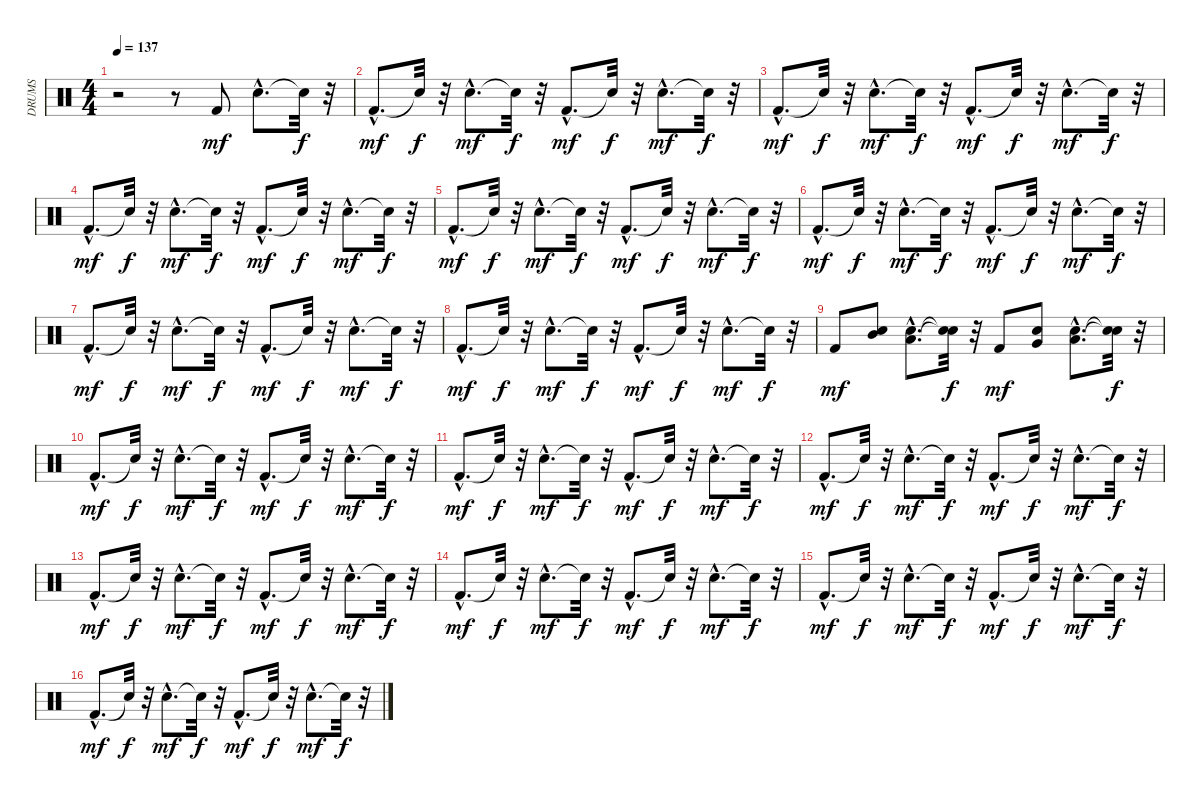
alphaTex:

\track ("DRUMS" "DRUMS") {instrument percussion}
\staff {score}
\articulation defaults
\ts (4 4)
\tempo 137
\clef neutral
\ks c
r.2{dy mf} r.8 "Kick (hit) 2".8 "Snare (hit) 2"{hac}.8{d} "Snare (hit)"{t}.32{dy f} r.32 |
"Kick (hit) 2"{hac}.8{d dy mf} "Snare (hit)"{t}.32{dy f} r.32 "Snare (hit) 2"{hac}.8{d dy mf} "Snare (hit)"{t}.32{dy f} r.32 "Kick (hit) 2"{hac}.8{d dy mf} "Snare (hit)"{t}.32{dy f} r.32 "Snare (hit) 2"{hac}.8{d dy mf} "Snare (hit)"{t}.32{dy f} r.32 |
"Kick (hit) 2"{hac}.8{d dy mf} "Snare (hit)"{t}.32{dy f} r.32 "Snare (hit) 2"{hac}.8{d dy mf} "Snare (hit)"{t}.32{dy f} r.32 "Kick (hit) 2"{hac}.8{d dy mf} "Snare (hit)"{t}.32{dy f} r.32 "Snare (hit) 2"{hac}.8{d dy mf} "Snare (hit)"{t}.32{dy f} r.32 |
"Kick (hit) 2"{hac}.8{d dy mf} "Snare (hit)"{t}.32{dy f} r.32 "Snare (hit) 2"{hac}.8{d dy mf} "Snare (hit)"{t}.32{dy f} r.32 "Kick (hit) 2"{hac}.8{d dy mf} "Snare (hit)"{t}.32{dy f} r.32 "Snare (hit) 2"{hac}.8{d dy mf} "Snare (hit)"{t}.32{dy f} r.32 |
"Kick (hit) 2"{hac}.8{d dy mf} "Snare (hit)"{t}.32{dy f} r.32 "Snare (hit) 2"{hac}.8{d dy mf} "Snare (hit)"{t}.32{dy f} r.32 "Kick (hit) 2"{hac}.8{d dy mf} "Snare (hit)"{t}.32{dy f} r.32 "Snare (hit) 2"{hac}.8{d dy mf} "Snare (hit)"{t}.32{dy f} r.32 |
"Kick (hit) 2"{hac}.8{d dy mf} "Snare (hit)"{t}.32{dy f} r.32 "Snare (hit) 2"{hac}.8{d dy mf} "Snare (hit)"{t}.32{dy f} r.32 "Kick (hit) 2"{hac}.8{d dy mf} "Snare (hit)"{t}.32{dy f} r.32 "Snare (hit) 2"{hac}.8{d dy mf} "Snare (hit)"{t}.32{dy f} r.32 |
"Kick (hit) 2"{hac}.8{d dy mf} "Snare (hit)"{t}.32{dy f} r.32 "Snare (hit) 2"{hac}.8{d dy mf} "Snare (hit)"{t}.32{dy f} r.32 "Kick (hit) 2"{hac}.8{d dy mf} "Snare (hit)"{t}.32{dy f} r.32 "Snare (hit) 2"{hac}.8{d dy mf} "Snare (hit)"{t}.32{dy f} r.32 |
"Kick (hit) 2"{hac}.8{d dy mf} "Snare (hit)"{t}.32{dy f} r.32 "Snare (hit) 2"{hac}.8{d dy mf} "Snare (hit)"{t}.32{dy f} r.32 "Kick (hit) 2"{hac}.8{d dy mf} "Snare (hit)"{t}.32{dy f} r.32 "Snare (hit) 2"{hac}.8{d dy mf} "Snare (hit)"{t}.32{dy f} r.32 |
"Kick (hit) 2".8{dy mf} ("Mid Tom (hit)" "Snare (hit) 2").8 ("Low Tom (hit)"{hac} "Snare (hit) 2"{hac}).8{d} ("Snare (hit)"{t} "Snare (hit)"{t}).32{dy f} r.32 "Kick (hit) 2".8{dy mf} ("Very Low Tom (hit)" "Snare (hit) 2").8 ("Low Floor Tom (hit)"{hac} "Snare (hit) 2"{hac}).8{d} ("Snare (hit)"{t} "Snare (hit)"{t}).32{dy f} r.32 |
"Kick (hit) 2"{hac}.8{d dy mf} "Snare (hit)"{t}.32{dy f} r.32 "Snare (hit) 2"{hac}.8{d dy mf} "Snare (hit)"{t}.32{dy f} r.32 "Kick (hit) 2"{hac}.8{d dy mf} "Snare (hit)"{t}.32{dy f} r.32 "Snare (hit) 2"{hac}.8{d dy mf} "Snare (hit)"{t}.32{dy f} r.32 |
"Kick (hit) 2"{hac}.8{d dy mf} "Snare (hit)"{t}.32{dy f} r.32 "Snare (hit) 2"{hac}.8{d dy mf} "Snare (hit)"{t}.32{dy f} r.32 "Kick (hit) 2"{hac}.8{d dy mf} "Snare (hit)"{t}.32{dy f} r.32 "Snare (hit) 2"{hac}.8{d dy mf} "Snare (hit)"{t}.32{dy f} r.32 |
"Kick (hit) 2"{hac}.8{d dy mf} "Snare (hit)"{t}.32{dy f} r.32 "Snare (hit) 2"{hac}.8{d dy mf} "Snare (hit)"{t}.32{dy f} r.32 "Kick (hit) 2"{hac}.8{d dy mf} "Snare (hit)"{t}.32{dy f} r.32 "Snare (hit) 2"{hac}.8{d dy mf} "Snare (hit)"{t}.32{dy f} r.32 |
"Kick (hit) 2"{hac}.8{d dy mf} "Snare (hit)"{t}.32{dy f} r.32 "Snare (hit) 2"{hac}.8{d dy mf} "Snare (hit)"{t}.32{dy f} r.32 "Kick (hit) 2"{hac}.8{d dy mf} "Snare (hit)"{t}.32{dy f} r.32 "Snare (hit) 2"{hac}.8{d dy mf} "Snare (hit)"{t}.32{dy f} r.32 |
"Kick (hit) 2"{hac}.8{d dy mf} "Snare (hit)"{t}.32{dy f} r.32 "Snare (hit) 2"{hac}.8{d dy mf} "Snare (hit)"{t}.32{dy f} r.32 "Kick (hit) 2"{hac}.8{d dy mf} "Snare (hit)"{t}.32{dy f} r.32 "Snare (hit) 2"{hac}.8{d dy mf} "Snare (hit)"{t}.32{dy f} r.32 |
"Kick (hit) 2"{hac}.8{d dy mf} "Snare (hit)"{t}.32{dy f} r.32 "Snare (hit) 2"{hac}.8{d dy mf} "Snare (hit)"{t}.32{dy f} r.32 "Kick (hit) 2"{hac}.8{d dy mf} "Snare (hit)"{t}.32{dy f} r.32 "Snare (hit) 2"{hac}.8{d dy mf} "Snare (hit)"{t}.32{dy f} r.32 |
"Kick (hit) 2"{hac}.8{d dy mf} "Snare (hit)"{t}.32{dy f} r.32 "Snare (hit) 2"{hac}.8{d dy mf} "Snare (hit)"{t}.32{dy f} r.32 "Kick (hit) 2"{hac}.8{d dy mf} "Snare (hit)"{t}.32{dy f} r.32 "Snare (hit) 2"{hac}.8{d dy mf} "Snare (hit)"{t}.32{dy f} r.32
